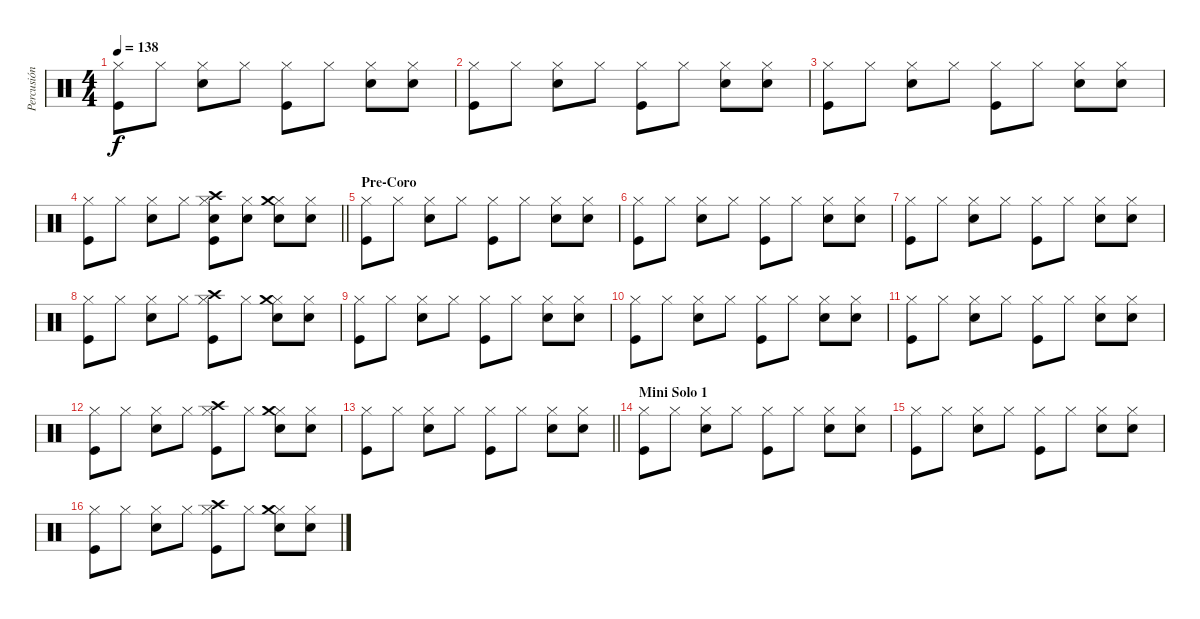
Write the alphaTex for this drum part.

\track ("Percusión" "Percusión") {instrument percussion}
\staff {score}
\articulation defaults
\ts (4 4)
\tempo 138
\clef neutral
\ks c
("Hi-Hat (closed)" "Kick (hit)").8{dy f} "Hi-Hat (closed)".8 ("Hi-Hat (closed)" "Snare (hit) 2").8 "Hi-Hat (closed)".8 ("Hi-Hat (closed)" "Kick (hit)").8 "Hi-Hat (closed)".8 ("Hi-Hat (closed)" "Snare (hit) 2").8 ("Hi-Hat (closed)" "Snare (hit) 2").8 |
("Hi-Hat (closed)" "Kick (hit)").8 "Hi-Hat (closed)".8 ("Hi-Hat (closed)" "Snare (hit) 2").8 "Hi-Hat (closed)".8 ("Hi-Hat (closed)" "Kick (hit)").8 "Hi-Hat (closed)".8 ("Hi-Hat (closed)" "Snare (hit) 2").8 ("Hi-Hat (closed)" "Snare (hit) 2").8 |
("Hi-Hat (closed)" "Kick (hit)").8 "Hi-Hat (closed)".8 ("Hi-Hat (closed)" "Snare (hit) 2").8 "Hi-Hat (closed)".8 ("Hi-Hat (closed)" "Kick (hit)").8 "Hi-Hat (closed)".8 ("Hi-Hat (closed)" "Snare (hit) 2").8 ("Hi-Hat (closed)" "Snare (hit) 2").8 |
\barLineRight lightlight
("Hi-Hat (closed)" "Kick (hit)").8 "Hi-Hat (closed)".8 ("Hi-Hat (closed)" "Snare (hit) 2").8 "Hi-Hat (closed)".8 ("Hi-Hat (closed)" "Snare (hit) 2" "Kick (hit)" "Crash high (hit)").8 ("Hi-Hat (closed)" "Snare (hit) 2").8 ("Hi-Hat (closed)" "Snare (hit) 2" "Crash medium (hit)").8 ("Hi-Hat (closed)" "Snare (hit) 2").8 |
\section ("" "Pre-Coro")
("Hi-Hat (closed)" "Kick (hit)").8 "Hi-Hat (closed)".8 ("Hi-Hat (closed)" "Snare (hit) 2").8 "Hi-Hat (closed)".8 ("Hi-Hat (closed)" "Kick (hit)").8 "Hi-Hat (closed)".8 ("Hi-Hat (closed)" "Snare (hit) 2").8 ("Hi-Hat (closed)" "Snare (hit) 2").8 |
("Hi-Hat (closed)" "Kick (hit)").8 "Hi-Hat (closed)".8 ("Hi-Hat (closed)" "Snare (hit) 2").8 "Hi-Hat (closed)".8 ("Hi-Hat (closed)" "Kick (hit)").8 "Hi-Hat (closed)".8 ("Hi-Hat (closed)" "Snare (hit) 2").8 ("Hi-Hat (closed)" "Snare (hit) 2").8 |
("Hi-Hat (closed)" "Kick (hit)").8 "Hi-Hat (closed)".8 ("Hi-Hat (closed)" "Snare (hit) 2").8 "Hi-Hat (closed)".8 ("Hi-Hat (closed)" "Kick (hit)").8 "Hi-Hat (closed)".8 ("Hi-Hat (closed)" "Snare (hit) 2").8 ("Hi-Hat (closed)" "Snare (hit) 2").8 |
("Hi-Hat (closed)" "Kick (hit)").8 "Hi-Hat (closed)".8 ("Hi-Hat (closed)" "Snare (hit) 2").8 "Hi-Hat (closed)".8 ("Hi-Hat (closed)" "Kick (hit)" "Crash high (hit)").8 "Hi-Hat (closed)".8 ("Hi-Hat (closed)" "Snare (hit) 2" "Crash medium (hit)").8 ("Hi-Hat (closed)" "Snare (hit) 2").8 |
("Hi-Hat (closed)" "Kick (hit)").8 "Hi-Hat (closed)".8 ("Hi-Hat (closed)" "Snare (hit) 2").8 "Hi-Hat (closed)".8 ("Hi-Hat (closed)" "Kick (hit)").8 "Hi-Hat (closed)".8 ("Hi-Hat (closed)" "Snare (hit) 2").8 ("Hi-Hat (closed)" "Snare (hit) 2").8 |
("Hi-Hat (closed)" "Kick (hit)").8 "Hi-Hat (closed)".8 ("Hi-Hat (closed)" "Snare (hit) 2").8 "Hi-Hat (closed)".8 ("Hi-Hat (closed)" "Kick (hit)").8 "Hi-Hat (closed)".8 ("Hi-Hat (closed)" "Snare (hit) 2").8 ("Hi-Hat (closed)" "Snare (hit) 2").8 |
("Hi-Hat (closed)" "Kick (hit)").8 "Hi-Hat (closed)".8 ("Hi-Hat (closed)" "Snare (hit) 2").8 "Hi-Hat (closed)".8 ("Hi-Hat (closed)" "Kick (hit)").8 "Hi-Hat (closed)".8 ("Hi-Hat (closed)" "Snare (hit) 2").8 ("Hi-Hat (closed)" "Snare (hit) 2").8 |
("Hi-Hat (closed)" "Kick (hit)").8 "Hi-Hat (closed)".8 ("Hi-Hat (closed)" "Snare (hit) 2").8 "Hi-Hat (closed)".8 ("Hi-Hat (closed)" "Kick (hit)" "Crash high (hit)").8 "Hi-Hat (closed)".8 ("Hi-Hat (closed)" "Snare (hit) 2" "Crash medium (hit)").8 ("Hi-Hat (closed)" "Snare (hit) 2").8 |
\barLineRight lightlight
("Hi-Hat (closed)" "Kick (hit)").8 "Hi-Hat (closed)".8 ("Hi-Hat (closed)" "Snare (hit) 2").8 "Hi-Hat (closed)".8 ("Hi-Hat (closed)" "Kick (hit)").8 "Hi-Hat (closed)".8 ("Hi-Hat (closed)" "Snare (hit) 2").8 ("Hi-Hat (closed)" "Snare (hit) 2").8 |
\section ("" "Mini Solo 1")
("Hi-Hat (closed)" "Kick (hit)").8 "Hi-Hat (closed)".8 ("Hi-Hat (closed)" "Snare (hit) 2").8 "Hi-Hat (closed)".8 ("Hi-Hat (closed)" "Kick (hit)").8 "Hi-Hat (closed)".8 ("Hi-Hat (closed)" "Snare (hit) 2").8 ("Hi-Hat (closed)" "Snare (hit) 2").8 |
("Hi-Hat (closed)" "Kick (hit)").8 "Hi-Hat (closed)".8 ("Hi-Hat (closed)" "Snare (hit) 2").8 "Hi-Hat (closed)".8 ("Hi-Hat (closed)" "Kick (hit)").8 "Hi-Hat (closed)".8 ("Hi-Hat (closed)" "Snare (hit) 2").8 ("Hi-Hat (closed)" "Snare (hit) 2").8 |
("Hi-Hat (closed)" "Kick (hit)").8 "Hi-Hat (closed)".8 ("Hi-Hat (closed)" "Snare (hit) 2").8 "Hi-Hat (closed)".8 ("Hi-Hat (closed)" "Kick (hit)" "Crash high (hit)").8 "Hi-Hat (closed)".8 ("Hi-Hat (closed)" "Snare (hit) 2" "Crash medium (hit)").8 ("Hi-Hat (closed)" "Snare (hit) 2").8
